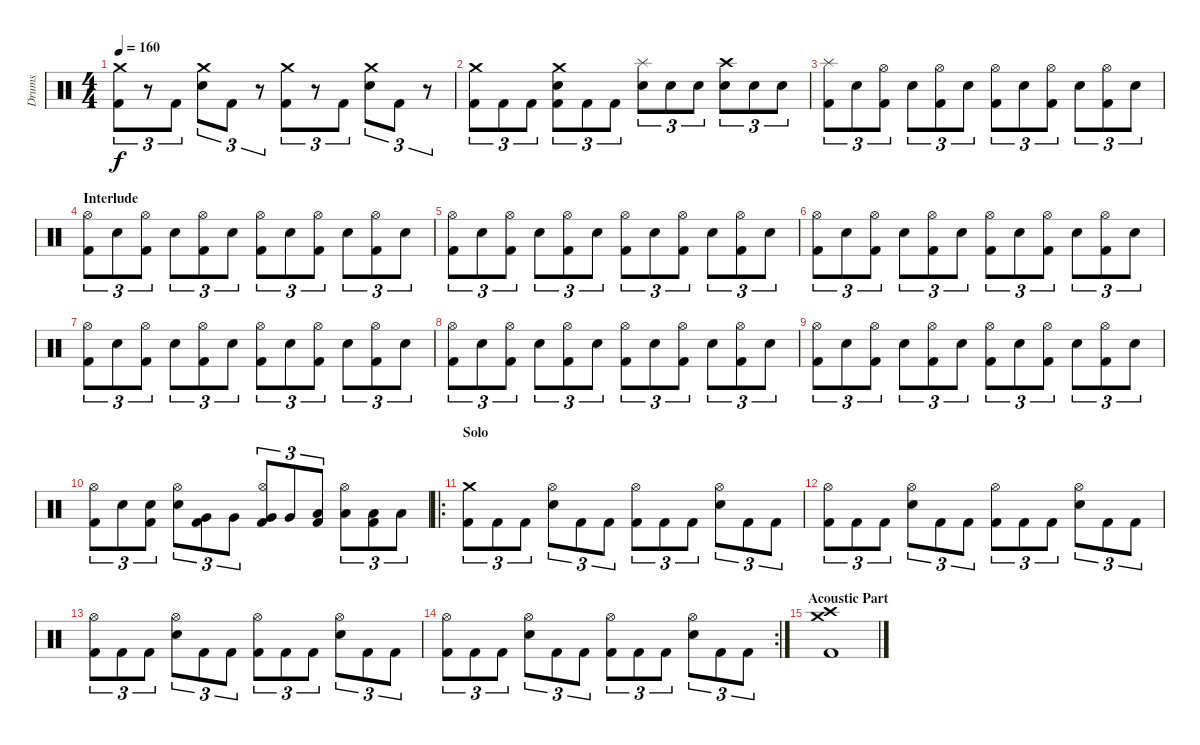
\track ("Drums" "Drums") {instrument percussion}
\staff {score}
\articulation defaults
\ts (4 4)
\tempo 160
\clef neutral
\ks c
("Crash medium (hit)" "Kick (hit) 2").8{tu (3 2) dy f} r.8{tu (3 2)} "Kick (hit) 2".8{tu (3 2)} ("Crash medium (hit)" "Electric Snare (hit)").8{tu (3 2)} "Kick (hit) 2".8{tu (3 2)} r.8{tu (3 2)} ("Crash medium (hit)" "Kick (hit) 2").8{tu (3 2)} r.8{tu (3 2)} "Kick (hit) 2".8{tu (3 2)} ("Crash medium (hit)" "Electric Snare (hit)").8{tu (3 2)} "Kick (hit) 2".8{tu (3 2)} r.8{tu (3 2)} |
("Crash medium (hit)" "Kick (hit) 2").8{tu (3 2)} "Kick (hit) 2".8{tu (3 2)} "Kick (hit) 2".8{tu (3 2)} ("Crash medium (hit)" "Electric Snare (hit)" "Kick (hit) 2").8{tu (3 2)} "Kick (hit) 2".8{tu (3 2)} "Kick (hit) 2".8{tu (3 2)} ("Splash (hit)" "Electric Snare (hit)").8{tu (3 2)} "Electric Snare (hit)".8{tu (3 2)} "Electric Snare (hit)".8{tu (3 2)} ("Crash high (hit)" "Electric Snare (hit)").8{tu (3 2)} "Electric Snare (hit)".8{tu (3 2)} "Electric Snare (hit)".8{tu (3 2)} |
("Splash (hit)" "Kick (hit) 2").8{tu (3 2)} "Electric Snare (hit)".8{tu (3 2)} ("Hi-Hat (open)" "Kick (hit) 2").8{tu (3 2)} "Electric Snare (hit)".8{tu (3 2)} ("Hi-Hat (open)" "Kick (hit) 2").8{tu (3 2)} "Electric Snare (hit)".8{tu (3 2)} ("Hi-Hat (open)" "Kick (hit) 2").8{tu (3 2)} "Electric Snare (hit)".8{tu (3 2)} ("Hi-Hat (open)" "Kick (hit) 2").8{tu (3 2)} "Electric Snare (hit)".8{tu (3 2)} ("Hi-Hat (open)" "Kick (hit) 2").8{tu (3 2)} "Electric Snare (hit)".8{tu (3 2)} |
\section ("" "Interlude")
("Hi-Hat (open)" "Kick (hit) 2").8{tu (3 2)} "Electric Snare (hit)".8{tu (3 2)} ("Hi-Hat (open)" "Kick (hit) 2").8{tu (3 2)} "Electric Snare (hit)".8{tu (3 2)} ("Hi-Hat (open)" "Kick (hit) 2").8{tu (3 2)} "Electric Snare (hit)".8{tu (3 2)} ("Hi-Hat (open)" "Kick (hit) 2").8{tu (3 2)} "Electric Snare (hit)".8{tu (3 2)} ("Hi-Hat (open)" "Kick (hit) 2").8{tu (3 2)} "Electric Snare (hit)".8{tu (3 2)} ("Hi-Hat (open)" "Kick (hit) 2").8{tu (3 2)} "Electric Snare (hit)".8{tu (3 2)} |
("Hi-Hat (open)" "Kick (hit) 2").8{tu (3 2)} "Electric Snare (hit)".8{tu (3 2)} ("Hi-Hat (open)" "Kick (hit) 2").8{tu (3 2)} "Electric Snare (hit)".8{tu (3 2)} ("Hi-Hat (open)" "Kick (hit) 2").8{tu (3 2)} "Electric Snare (hit)".8{tu (3 2)} ("Hi-Hat (open)" "Kick (hit) 2").8{tu (3 2)} "Electric Snare (hit)".8{tu (3 2)} ("Hi-Hat (open)" "Kick (hit) 2").8{tu (3 2)} "Electric Snare (hit)".8{tu (3 2)} ("Hi-Hat (open)" "Kick (hit) 2").8{tu (3 2)} "Electric Snare (hit)".8{tu (3 2)} |
("Hi-Hat (open)" "Kick (hit) 2").8{tu (3 2)} "Electric Snare (hit)".8{tu (3 2)} ("Hi-Hat (open)" "Kick (hit) 2").8{tu (3 2)} "Electric Snare (hit)".8{tu (3 2)} ("Hi-Hat (open)" "Kick (hit) 2").8{tu (3 2)} "Electric Snare (hit)".8{tu (3 2)} ("Hi-Hat (open)" "Kick (hit) 2").8{tu (3 2)} "Electric Snare (hit)".8{tu (3 2)} ("Hi-Hat (open)" "Kick (hit) 2").8{tu (3 2)} "Electric Snare (hit)".8{tu (3 2)} ("Hi-Hat (open)" "Kick (hit) 2").8{tu (3 2)} "Electric Snare (hit)".8{tu (3 2)} |
("Hi-Hat (open)" "Kick (hit) 2").8{tu (3 2)} "Electric Snare (hit)".8{tu (3 2)} ("Hi-Hat (open)" "Kick (hit) 2").8{tu (3 2)} "Electric Snare (hit)".8{tu (3 2)} ("Hi-Hat (open)" "Kick (hit) 2").8{tu (3 2)} "Electric Snare (hit)".8{tu (3 2)} ("Hi-Hat (open)" "Kick (hit) 2").8{tu (3 2)} "Electric Snare (hit)".8{tu (3 2)} ("Hi-Hat (open)" "Kick (hit) 2").8{tu (3 2)} "Electric Snare (hit)".8{tu (3 2)} ("Hi-Hat (open)" "Kick (hit) 2").8{tu (3 2)} "Electric Snare (hit)".8{tu (3 2)} |
("Hi-Hat (open)" "Kick (hit) 2").8{tu (3 2)} "Electric Snare (hit)".8{tu (3 2)} ("Hi-Hat (open)" "Kick (hit) 2").8{tu (3 2)} "Electric Snare (hit)".8{tu (3 2)} ("Hi-Hat (open)" "Kick (hit) 2").8{tu (3 2)} "Electric Snare (hit)".8{tu (3 2)} ("Hi-Hat (open)" "Kick (hit) 2").8{tu (3 2)} "Electric Snare (hit)".8{tu (3 2)} ("Hi-Hat (open)" "Kick (hit) 2").8{tu (3 2)} "Electric Snare (hit)".8{tu (3 2)} ("Hi-Hat (open)" "Kick (hit) 2").8{tu (3 2)} "Electric Snare (hit)".8{tu (3 2)} |
("Hi-Hat (open)" "Kick (hit) 2").8{tu (3 2)} "Electric Snare (hit)".8{tu (3 2)} ("Hi-Hat (open)" "Kick (hit) 2").8{tu (3 2)} "Electric Snare (hit)".8{tu (3 2)} ("Hi-Hat (open)" "Kick (hit) 2").8{tu (3 2)} "Electric Snare (hit)".8{tu (3 2)} ("Hi-Hat (open)" "Kick (hit) 2").8{tu (3 2)} "Electric Snare (hit)".8{tu (3 2)} ("Hi-Hat (open)" "Kick (hit) 2").8{tu (3 2)} "Electric Snare (hit)".8{tu (3 2)} ("Hi-Hat (open)" "Kick (hit) 2").8{tu (3 2)} "Electric Snare (hit)".8{tu (3 2)} |
("Hi-Hat (open)" "Kick (hit) 2").8{tu (3 2)} "Electric Snare (hit)".8{tu (3 2)} ("Electric Snare (hit)" "Kick (hit) 2").8{tu (3 2)} ("Hi-Hat (open)" "Electric Snare (hit)").8{tu (3 2)} ("Very Low Tom (hit)" "Kick (hit) 2").8{tu (3 2)} "Very Low Tom (hit)".8{tu (3 2)} ("Hi-Hat (open)" "Very Low Tom (hit)" "Kick (hit) 2").8{tu (3 2)} "Very Low Tom (hit)".8{tu (3 2)} ("Low Floor Tom (hit)" "Kick (hit) 2").8{tu (3 2)} ("Hi-Hat (open)" "Low Floor Tom (hit)").8{tu (3 2)} ("Low Floor Tom (hit)" "Kick (hit) 2").8{tu (3 2)} "Low Floor Tom (hit)".8{tu (3 2)} |
\ro
\section ("" "Solo")
("Crash medium (hit)" "Kick (hit) 2").8{tu (3 2)} "Kick (hit) 2".8{tu (3 2)} "Kick (hit) 2".8{tu (3 2)} ("Hi-Hat (open)" "Electric Snare (hit)").8{tu (3 2)} "Kick (hit) 2".8{tu (3 2)} "Kick (hit) 2".8{tu (3 2)} ("Hi-Hat (open)" "Kick (hit) 2").8{tu (3 2)} "Kick (hit) 2".8{tu (3 2)} "Kick (hit) 2".8{tu (3 2)} ("Hi-Hat (open)" "Electric Snare (hit)").8{tu (3 2)} "Kick (hit) 2".8{tu (3 2)} "Kick (hit) 2".8{tu (3 2)} |
("Hi-Hat (open)" "Kick (hit) 2").8{tu (3 2)} "Kick (hit) 2".8{tu (3 2)} "Kick (hit) 2".8{tu (3 2)} ("Hi-Hat (open)" "Electric Snare (hit)").8{tu (3 2)} "Kick (hit) 2".8{tu (3 2)} "Kick (hit) 2".8{tu (3 2)} ("Hi-Hat (open)" "Kick (hit) 2").8{tu (3 2)} "Kick (hit) 2".8{tu (3 2)} "Kick (hit) 2".8{tu (3 2)} ("Hi-Hat (open)" "Electric Snare (hit)").8{tu (3 2)} "Kick (hit) 2".8{tu (3 2)} "Kick (hit) 2".8{tu (3 2)} |
("Hi-Hat (open)" "Kick (hit) 2").8{tu (3 2)} "Kick (hit) 2".8{tu (3 2)} "Kick (hit) 2".8{tu (3 2)} ("Hi-Hat (open)" "Electric Snare (hit)").8{tu (3 2)} "Kick (hit) 2".8{tu (3 2)} "Kick (hit) 2".8{tu (3 2)} ("Hi-Hat (open)" "Kick (hit) 2").8{tu (3 2)} "Kick (hit) 2".8{tu (3 2)} "Kick (hit) 2".8{tu (3 2)} ("Hi-Hat (open)" "Electric Snare (hit)").8{tu (3 2)} "Kick (hit) 2".8{tu (3 2)} "Kick (hit) 2".8{tu (3 2)} |
\rc 2
("Hi-Hat (open)" "Kick (hit) 2").8{tu (3 2)} "Kick (hit) 2".8{tu (3 2)} "Kick (hit) 2".8{tu (3 2)} ("Hi-Hat (open)" "Electric Snare (hit)").8{tu (3 2)} "Kick (hit) 2".8{tu (3 2)} "Kick (hit) 2".8{tu (3 2)} ("Hi-Hat (open)" "Kick (hit) 2").8{tu (3 2)} "Kick (hit) 2".8{tu (3 2)} "Kick (hit) 2".8{tu (3 2)} ("Hi-Hat (open)" "Electric Snare (hit)").8{tu (3 2)} "Kick (hit) 2".8{tu (3 2)} "Kick (hit) 2".8{tu (3 2)} |
\section ("" "Acoustic Part")
("Crash high (hit)" "Crash medium (hit)" "Kick (hit) 2").1
